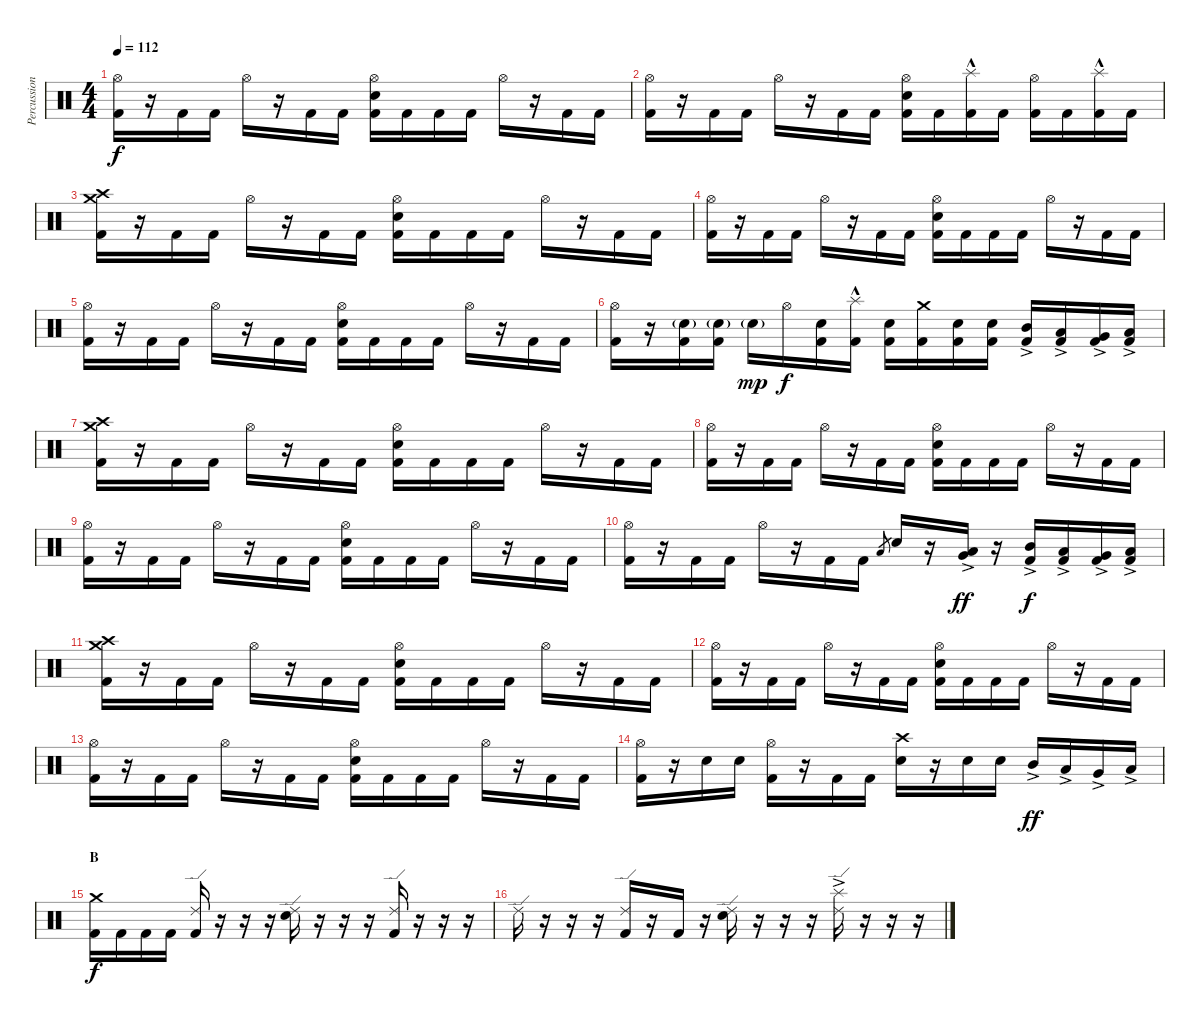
\track ("Percussion" "Percussion") {instrument percussion}
\staff {score}
\articulation defaults
\ts (4 4)
\tempo 112
\clef neutral
\ks c
("Hi-Hat (open)" "Kick (hit) 2").16{dy f} r.16 "Kick (hit) 2".16 "Kick (hit) 2".16 "Hi-Hat (open)".16 r.16 "Kick (hit) 2".16 "Kick (hit) 2".16 ("Hi-Hat (open)" "Electric Snare (hit)" "Kick (hit) 2").16 "Kick (hit) 2".16 "Kick (hit) 2".16 "Kick (hit) 2".16 "Hi-Hat (open)".16 r.16 "Kick (hit) 2".16 "Kick (hit) 2".16 |
("Hi-Hat (open)" "Kick (hit) 2").16 r.16 "Kick (hit) 2".16 "Kick (hit) 2".16 "Hi-Hat (open)".16 r.16 "Kick (hit) 2".16 "Kick (hit) 2".16 ("Hi-Hat (open)" "Electric Snare (hit)" "Kick (hit) 2").16 "Kick (hit) 2".16 ("Splash (hit)"{hac} "Kick (hit) 2").16 "Kick (hit) 2".16 ("Hi-Hat (open)" "Kick (hit) 2").16 "Kick (hit) 2".16 ("Splash (hit)"{hac} "Kick (hit) 2").16 "Kick (hit) 2".16 |
("Crash medium (hit)" "Crash high (hit)" "Kick (hit) 2").16 r.16 "Kick (hit) 2".16 "Kick (hit) 2".16 "Hi-Hat (open)".16 r.16 "Kick (hit) 2".16 "Kick (hit) 2".16 ("Hi-Hat (open)" "Electric Snare (hit)" "Kick (hit) 2").16 "Kick (hit) 2".16 "Kick (hit) 2".16 "Kick (hit) 2".16 "Hi-Hat (open)".16 r.16 "Kick (hit) 2".16 "Kick (hit) 2".16 |
("Hi-Hat (open)" "Kick (hit) 2").16 r.16 "Kick (hit) 2".16 "Kick (hit) 2".16 "Hi-Hat (open)".16 r.16 "Kick (hit) 2".16 "Kick (hit) 2".16 ("Hi-Hat (open)" "Electric Snare (hit)" "Kick (hit) 2").16 "Kick (hit) 2".16 "Kick (hit) 2".16 "Kick (hit) 2".16 "Hi-Hat (open)".16 r.16 "Kick (hit) 2".16 "Kick (hit) 2".16 |
("Hi-Hat (open)" "Kick (hit) 2").16 r.16 "Kick (hit) 2".16 "Kick (hit) 2".16 "Hi-Hat (open)".16 r.16 "Kick (hit) 2".16 "Kick (hit) 2".16 ("Hi-Hat (open)" "Electric Snare (hit)" "Kick (hit) 2").16 "Kick (hit) 2".16 "Kick (hit) 2".16 "Kick (hit) 2".16 "Hi-Hat (open)".16 r.16 "Kick (hit) 2".16 "Kick (hit) 2".16 |
("Hi-Hat (open)" "Kick (hit) 2").16 r.16 ("Electric Snare (hit)"{g} "Kick (hit) 2").16 ("Electric Snare (hit)"{g} "Kick (hit) 2").16 "Electric Snare (hit)"{g}.16{dy mp} "Hi-Hat (open)".16{dy f} ("Electric Snare (hit)" "Kick (hit) 2").16 ("Splash (hit)"{hac} "Kick (hit) 2").16 ("Electric Snare (hit)" "Kick (hit) 2").16 ("Crash medium (hit)" "Kick (hit) 2").16 ("Electric Snare (hit)" "Kick (hit) 2").16 ("Electric Snare (hit)" "Kick (hit) 2").16 ("Mid Tom (hit)"{ac} "Kick (hit) 2").16 ("Low Tom (hit)"{ac} "Kick (hit) 2").16 ("Very Low Tom (hit)"{ac} "Kick (hit) 2").16 ("Low Floor Tom (hit)"{ac} "Kick (hit) 2").16 |
("Crash medium (hit)" "Crash high (hit)" "Kick (hit) 2").16 r.16 "Kick (hit) 2".16 "Kick (hit) 2".16 "Hi-Hat (open)".16 r.16 "Kick (hit) 2".16 "Kick (hit) 2".16 ("Hi-Hat (open)" "Electric Snare (hit)" "Kick (hit) 2").16 "Kick (hit) 2".16 "Kick (hit) 2".16 "Kick (hit) 2".16 "Hi-Hat (open)".16 r.16 "Kick (hit) 2".16 "Kick (hit) 2".16 |
("Hi-Hat (open)" "Kick (hit) 2").16 r.16 "Kick (hit) 2".16 "Kick (hit) 2".16 "Hi-Hat (open)".16 r.16 "Kick (hit) 2".16 "Kick (hit) 2".16 ("Hi-Hat (open)" "Electric Snare (hit)" "Kick (hit) 2").16 "Kick (hit) 2".16 "Kick (hit) 2".16 "Kick (hit) 2".16 "Hi-Hat (open)".16 r.16 "Kick (hit) 2".16 "Kick (hit) 2".16 |
("Hi-Hat (open)" "Kick (hit) 2").16 r.16 "Kick (hit) 2".16 "Kick (hit) 2".16 "Hi-Hat (open)".16 r.16 "Kick (hit) 2".16 "Kick (hit) 2".16 ("Hi-Hat (open)" "Electric Snare (hit)" "Kick (hit) 2").16 "Kick (hit) 2".16 "Kick (hit) 2".16 "Kick (hit) 2".16 "Hi-Hat (open)".16 r.16 "Kick (hit) 2".16 "Kick (hit) 2".16 |
("Hi-Hat (open)" "Kick (hit) 2").16 r.16 "Kick (hit) 2".16 "Kick (hit) 2".16 "Hi-Hat (open)".16 r.16 "Kick (hit) 2".16 "Kick (hit) 2".16 "Low Tom (hit)".8{gr} "Electric Snare (hit)".16 r.16 ("Low Tom (hit)"{ac} "Very Low Tom (hit)"{ac}).16{dy ff} r.16 ("Mid Tom (hit)"{ac} "Kick (hit) 2").16{dy f} ("Low Tom (hit)"{ac} "Kick (hit) 2").16 ("Very Low Tom (hit)"{ac} "Kick (hit) 2").16 ("Low Floor Tom (hit)"{ac} "Kick (hit) 2").16 |
("Crash medium (hit)" "Crash high (hit)" "Kick (hit) 2").16 r.16 "Kick (hit) 2".16 "Kick (hit) 2".16 "Hi-Hat (open)".16 r.16 "Kick (hit) 2".16 "Kick (hit) 2".16 ("Hi-Hat (open)" "Electric Snare (hit)" "Kick (hit) 2").16 "Kick (hit) 2".16 "Kick (hit) 2".16 "Kick (hit) 2".16 "Hi-Hat (open)".16 r.16 "Kick (hit) 2".16 "Kick (hit) 2".16 |
("Hi-Hat (open)" "Kick (hit) 2").16 r.16 "Kick (hit) 2".16 "Kick (hit) 2".16 "Hi-Hat (open)".16 r.16 "Kick (hit) 2".16 "Kick (hit) 2".16 ("Hi-Hat (open)" "Electric Snare (hit)" "Kick (hit) 2").16 "Kick (hit) 2".16 "Kick (hit) 2".16 "Kick (hit) 2".16 "Hi-Hat (open)".16 r.16 "Kick (hit) 2".16 "Kick (hit) 2".16 |
("Hi-Hat (open)" "Kick (hit) 2").16 r.16 "Kick (hit) 2".16 "Kick (hit) 2".16 "Hi-Hat (open)".16 r.16 "Kick (hit) 2".16 "Kick (hit) 2".16 ("Hi-Hat (open)" "Electric Snare (hit)" "Kick (hit) 2").16 "Kick (hit) 2".16 "Kick (hit) 2".16 "Kick (hit) 2".16 "Hi-Hat (open)".16 r.16 "Kick (hit) 2".16 "Kick (hit) 2".16 |
("Hi-Hat (open)" "Kick (hit) 2").16 r.16 "Electric Snare (hit)".16 "Electric Snare (hit)".16 ("Hi-Hat (open)" "Kick (hit) 2").16 r.16 "Kick (hit) 2".16 "Kick (hit) 2".16 ("Crash high (hit)" "Electric Snare (hit)").16 r.16 "Electric Snare (hit)".16 "Electric Snare (hit)".16 "Mid Tom (hit)"{ac}.16{dy ff} "Low Tom (hit)"{ac}.16 "Very Low Tom (hit)"{ac}.16 "Low Floor Tom (hit)"{ac}.16 |
\section ("" "B")
("Crash medium (hit)" "Kick (hit) 2").16{dy f} "Kick (hit) 2".16 "Kick (hit) 2".16 "Kick (hit) 2".16 ("Ride (edge) 2" "Kick (hit) 2").16 r.16 r.16 r.16 ("Ride (edge) 2" "Electric Snare (hit)").16 r.16 r.16 r.16 ("Ride (edge) 2" "Kick (hit) 2").16 r.16 r.16 r.16 |
"Ride (edge) 2".16 r.16 r.16 r.16 ("Ride (edge) 2" "Kick (hit) 2").16 r.16 "Kick (hit) 2".16 r.16 ("Ride (edge) 2" "Electric Snare (hit)").16 r.16 r.16 r.16 ("Splash (hit)"{ac} "Ride (edge) 2").16 r.16 r.16 r.16
